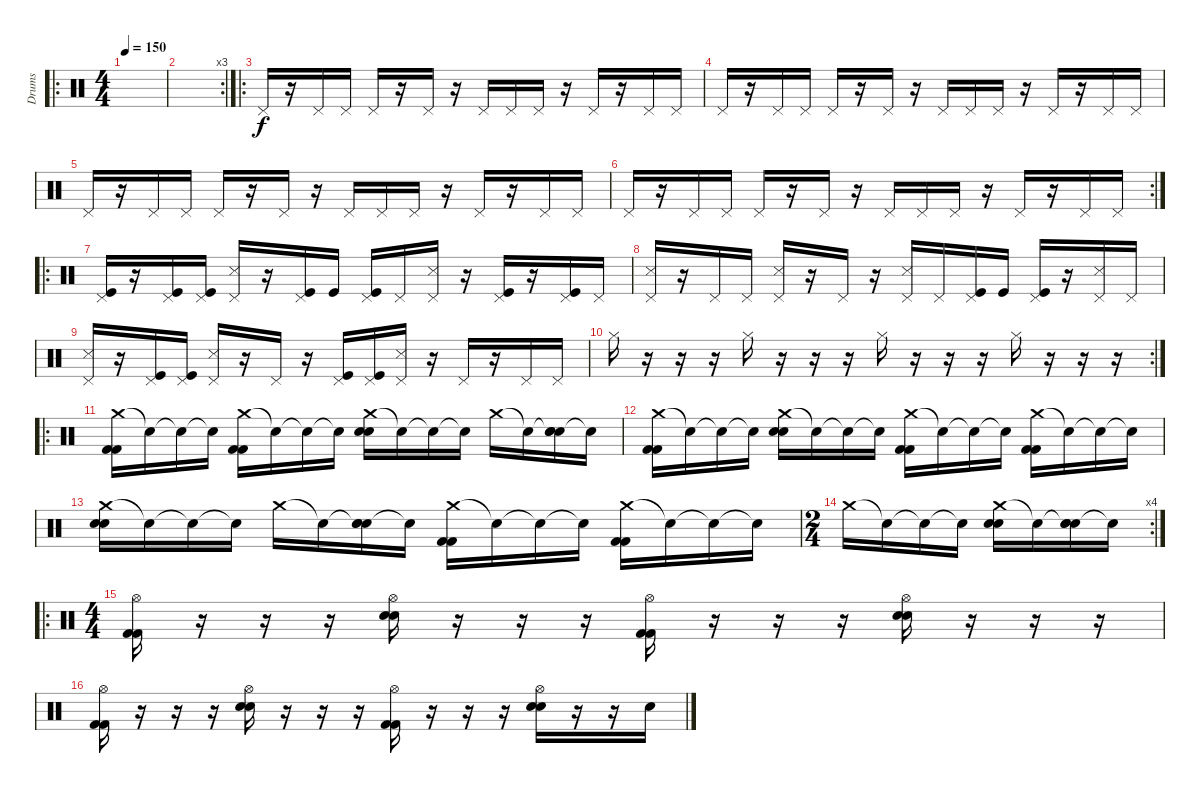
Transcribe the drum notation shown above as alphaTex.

\track ("Drums" "Drums") {instrument percussion}
\staff {score}
\articulation defaults
\ro
\ts (4 4)
\tempo 150
\clef neutral
\ks c
|
\rc 3
|
\ro "Pedal Hi-Hat (hit)".16
r.16 "Pedal Hi-Hat (hit)".16 "Pedal Hi-Hat (hit)".16 "Pedal Hi-Hat (hit)".16 r.16 "Pedal Hi-Hat (hit)".16 r.16 "Pedal Hi-Hat (hit)".16 "Pedal Hi-Hat (hit)".16 "Pedal Hi-Hat (hit)".16 r.16 "Pedal Hi-Hat (hit)".16 r.16 "Pedal Hi-Hat (hit)".16 "Pedal Hi-Hat (hit)".16 |
"Pedal Hi-Hat (hit)".16 r.16 "Pedal Hi-Hat (hit)".16 "Pedal Hi-Hat (hit)".16 "Pedal Hi-Hat (hit)".16 r.16 "Pedal Hi-Hat (hit)".16 r.16 "Pedal Hi-Hat (hit)".16 "Pedal Hi-Hat (hit)".16 "Pedal Hi-Hat (hit)".16 r.16 "Pedal Hi-Hat (hit)".16 r.16 "Pedal Hi-Hat (hit)".16 "Pedal Hi-Hat (hit)".16 |
"Pedal Hi-Hat (hit)".16 r.16 "Pedal Hi-Hat (hit)".16 "Pedal Hi-Hat (hit)".16 "Pedal Hi-Hat (hit)".16 r.16 "Pedal Hi-Hat (hit)".16 r.16 "Pedal Hi-Hat (hit)".16 "Pedal Hi-Hat (hit)".16 "Pedal Hi-Hat (hit)".16 r.16 "Pedal Hi-Hat (hit)".16 r.16 "Pedal Hi-Hat (hit)".16 "Pedal Hi-Hat (hit)".16 |
\rc 2 "Pedal Hi-Hat (hit)".16
r.16 "Pedal Hi-Hat (hit)".16 "Pedal Hi-Hat (hit)".16 "Pedal Hi-Hat (hit)".16 r.16 "Pedal Hi-Hat (hit)".16 r.16 "Pedal Hi-Hat (hit)".16 "Pedal Hi-Hat (hit)".16 "Pedal Hi-Hat (hit)".16 r.16 "Pedal Hi-Hat (hit)".16 r.16 "Pedal Hi-Hat (hit)".16 "Pedal Hi-Hat (hit)".16 |
\ro
("Pedal Hi-Hat (hit)" "Kick (hit)").16 r.16 ("Pedal Hi-Hat (hit)" "Kick (hit)").16 ("Pedal Hi-Hat (hit)" "Kick (hit)").16 ("Pedal Hi-Hat (hit)" "Snare (side stick) 3").16 r.16 ("Pedal Hi-Hat (hit)" "Kick (hit)").16 "Kick (hit)".16 ("Pedal Hi-Hat (hit)" "Kick (hit)").16 "Pedal Hi-Hat (hit)".16 ("Pedal Hi-Hat (hit)" "Snare (side stick) 3").16 r.16 ("Pedal Hi-Hat (hit)" "Kick (hit)").16 r.16 ("Pedal Hi-Hat (hit)" "Kick (hit)").16 "Pedal Hi-Hat (hit)".16 |
("Pedal Hi-Hat (hit)" "Snare (side stick) 3").16 r.16 "Pedal Hi-Hat (hit)".16 "Pedal Hi-Hat (hit)".16 ("Pedal Hi-Hat (hit)" "Snare (side stick) 3").16 r.16 "Pedal Hi-Hat (hit)".16 r.16 ("Pedal Hi-Hat (hit)" "Snare (side stick) 3").16 "Pedal Hi-Hat (hit)".16 ("Pedal Hi-Hat (hit)" "Kick (hit)").16 "Kick (hit)".16 ("Pedal Hi-Hat (hit)" "Kick (hit)").16 r.16 ("Pedal Hi-Hat (hit)" "Snare (side stick) 3").16 "Pedal Hi-Hat (hit)".16 |
("Pedal Hi-Hat (hit)" "Snare (side stick) 3").16 r.16 ("Pedal Hi-Hat (hit)" "Kick (hit)").16 ("Pedal Hi-Hat (hit)" "Kick (hit)").16 ("Pedal Hi-Hat (hit)" "Snare (side stick) 3").16 r.16 "Pedal Hi-Hat (hit)".16 r.16 ("Pedal Hi-Hat (hit)" "Kick (hit)").16 ("Pedal Hi-Hat (hit)" "Kick (hit)").16 ("Pedal Hi-Hat (hit)" "Snare (side stick) 3").16 r.16 "Pedal Hi-Hat (hit)".16 r.16 "Pedal Hi-Hat (hit)".16 "Pedal Hi-Hat (hit)".16 |
\rc 2 "Hi-Hat (closed)".16
r.16 r.16 r.16 "Hi-Hat (closed)".16 r.16 r.16 r.16 "Hi-Hat (closed)".16 r.16 r.16 r.16 "Hi-Hat (closed)".16 r.16 r.16 r.16 |
\ro
("Crash medium (hit)" "Kick (hit) 2" "Kick (hit) 2").16 "Snare (hit)"{t}.16 "Snare (hit)"{t}.16 "Snare (hit)"{t}.16 ("Crash medium (hit)" "Kick (hit) 2" "Kick (hit) 2").16 "Snare (hit)"{t}.16 "Snare (hit)"{t}.16 "Snare (hit)"{t}.16 ("Crash medium (hit)" "Electric Snare (hit)" "Electric Snare (hit)").16 "Snare (hit)"{t}.16 "Snare (hit)"{t}.16 "Snare (hit)"{t}.16 "Crash medium (hit)".16 "Snare (hit)"{t}.16 ("Snare (hit)"{t} "Electric Snare (hit)" "Electric Snare (hit)").16 "Snare (hit)"{t}.16 |
("Crash medium (hit)" "Kick (hit) 2" "Kick (hit) 2").16 "Snare (hit)"{t}.16 "Snare (hit)"{t}.16 "Snare (hit)"{t}.16 ("Crash medium (hit)" "Electric Snare (hit)" "Electric Snare (hit)").16 "Snare (hit)"{t}.16 "Snare (hit)"{t}.16 "Snare (hit)"{t}.16 ("Crash medium (hit)" "Kick (hit) 2" "Kick (hit) 2").16 "Snare (hit)"{t}.16 "Snare (hit)"{t}.16 "Snare (hit)"{t}.16 ("Crash medium (hit)" "Kick (hit) 2" "Kick (hit) 2").16 "Snare (hit)"{t}.16 "Snare (hit)"{t}.16 "Snare (hit)"{t}.16 |
("Crash medium (hit)" "Electric Snare (hit)" "Electric Snare (hit)").16 "Snare (hit)"{t}.16 "Snare (hit)"{t}.16 "Snare (hit)"{t}.16 "Crash medium (hit)".16 "Snare (hit)"{t}.16 ("Snare (hit)"{t} "Electric Snare (hit)" "Electric Snare (hit)").16 "Snare (hit)"{t}.16 ("Crash medium (hit)" "Kick (hit) 2" "Kick (hit) 2").16 "Snare (hit)"{t}.16 "Snare (hit)"{t}.16 "Snare (hit)"{t}.16 ("Crash medium (hit)" "Kick (hit) 2" "Kick (hit) 2").16 "Snare (hit)"{t}.16 "Snare (hit)"{t}.16 "Snare (hit)"{t}.16 |
\rc 4
\ts (2 4)
"Crash medium (hit)".16 "Snare (hit)"{t}.16 "Snare (hit)"{t}.16 "Snare (hit)"{t}.16 ("Crash medium (hit)" "Electric Snare (hit)" "Electric Snare (hit)").16 "Snare (hit)"{t}.16 ("Snare (hit)"{t} "Electric Snare (hit)" "Electric Snare (hit)").16 "Snare (hit)"{t}.16 |
\ro
\ts (4 4)
("Hi-Hat (open)" "Kick (hit) 2" "Kick (hit) 2").16 r.16 r.16 r.16 ("Hi-Hat (open)" "Electric Snare (hit)" "Electric Snare (hit)").16 r.16 r.16 r.16 ("Hi-Hat (open)" "Kick (hit) 2" "Kick (hit) 2").16 r.16 r.16 r.16 ("Hi-Hat (open)" "Electric Snare (hit)" "Electric Snare (hit)").16 r.16 r.16 r.16 |
("Hi-Hat (open)" "Kick (hit) 2" "Kick (hit) 2").16 r.16 r.16 r.16 ("Hi-Hat (open)" "Electric Snare (hit)" "Electric Snare (hit)").16 r.16 r.16 r.16 ("Hi-Hat (open)" "Kick (hit) 2" "Kick (hit) 2").16 r.16 r.16 r.16 ("Hi-Hat (open)" "Electric Snare (hit)" "Electric Snare (hit)").16 r.16 r.16 "Electric Snare (hit)".16
